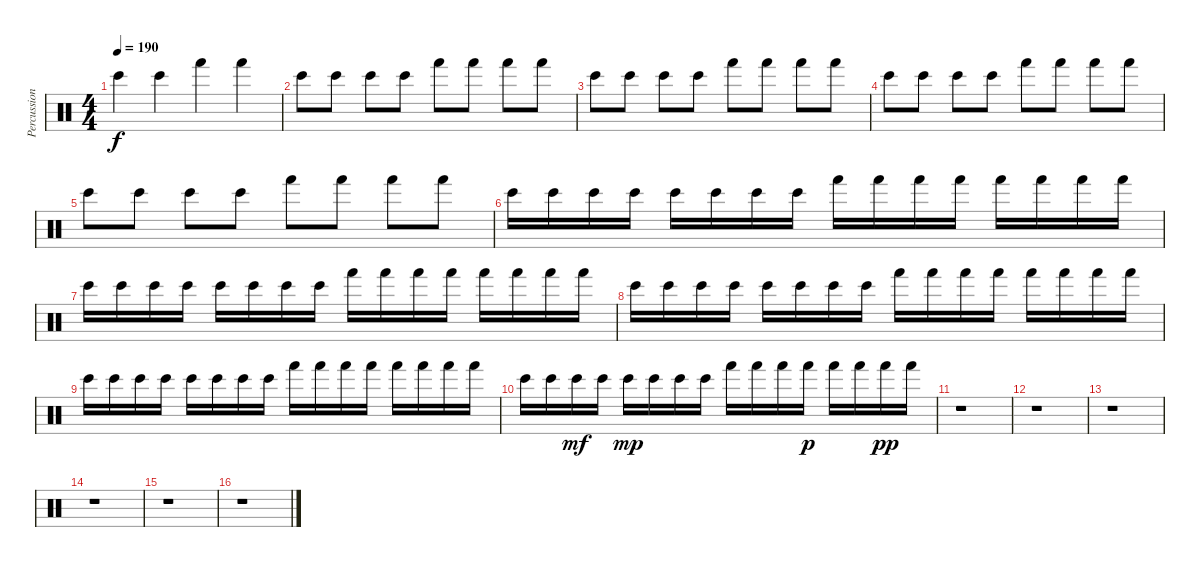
\track ("Percussion" "Percussion") {instrument percussion}
\staff {score}
\articulation defaults
\ts (4 4)
\tempo 190
\clef neutral
\ks c "Bongo High (hit)".4{dy f} "Bongo High (hit)".4 "Hand (hit)".4 "Hand (hit)".4
|
"Bongo High (hit)".8 "Bongo High (hit)".8 "Bongo High (hit)".8 "Bongo High (hit)".8 "Hand (hit)".8 "Hand (hit)".8 "Hand (hit)".8 "Hand (hit)".8 |
"Bongo High (hit)".8 "Bongo High (hit)".8 "Bongo High (hit)".8 "Bongo High (hit)".8 "Hand (hit)".8 "Hand (hit)".8 "Hand (hit)".8 "Hand (hit)".8 |
"Bongo High (hit)".8 "Bongo High (hit)".8 "Bongo High (hit)".8 "Bongo High (hit)".8 "Hand (hit)".8 "Hand (hit)".8 "Hand (hit)".8 "Hand (hit)".8 |
"Bongo High (hit)".8 "Bongo High (hit)".8 "Bongo High (hit)".8 "Bongo High (hit)".8 "Hand (hit)".8 "Hand (hit)".8 "Hand (hit)".8 "Hand (hit)".8 |
"Bongo High (hit)".16 "Bongo High (hit)".16 "Bongo High (hit)".16 "Bongo High (hit)".16 "Bongo High (hit)".16 "Bongo High (hit)".16 "Bongo High (hit)".16 "Bongo High (hit)".16 "Hand (hit)".16 "Hand (hit)".16 "Hand (hit)".16 "Hand (hit)".16 "Hand (hit)".16 "Hand (hit)".16 "Hand (hit)".16 "Hand (hit)".16 |
"Bongo High (hit)".16 "Bongo High (hit)".16 "Bongo High (hit)".16 "Bongo High (hit)".16 "Bongo High (hit)".16 "Bongo High (hit)".16 "Bongo High (hit)".16 "Bongo High (hit)".16 "Hand (hit)".16 "Hand (hit)".16 "Hand (hit)".16 "Hand (hit)".16 "Hand (hit)".16 "Hand (hit)".16 "Hand (hit)".16 "Hand (hit)".16 |
"Bongo High (hit)".16 "Bongo High (hit)".16 "Bongo High (hit)".16 "Bongo High (hit)".16 "Bongo High (hit)".16 "Bongo High (hit)".16 "Bongo High (hit)".16 "Bongo High (hit)".16 "Hand (hit)".16 "Hand (hit)".16 "Hand (hit)".16 "Hand (hit)".16 "Hand (hit)".16 "Hand (hit)".16 "Hand (hit)".16 "Hand (hit)".16 |
"Bongo High (hit)".16 "Bongo High (hit)".16 "Bongo High (hit)".16 "Bongo High (hit)".16 "Bongo High (hit)".16 "Bongo High (hit)".16 "Bongo High (hit)".16 "Bongo High (hit)".16 "Hand (hit)".16 "Hand (hit)".16 "Hand (hit)".16 "Hand (hit)".16 "Hand (hit)".16 "Hand (hit)".16 "Hand (hit)".16 "Hand (hit)".16 |
"Bongo High (hit)".16 "Bongo High (hit)".16 "Bongo High (hit)".16{dy mf} "Bongo High (hit)".16 "Bongo High (hit)".16{dy mp} "Bongo High (hit)".16 "Bongo High (hit)".16 "Bongo High (hit)".16 "Hand (hit)".16 "Hand (hit)".16 "Hand (hit)".16 "Hand (hit)".16{dy p} "Hand (hit)".16 "Hand (hit)".16 "Hand (hit)".16{dy pp} "Hand (hit)".16 |
r.1 |
r.1 |
r.1 |
r.1 |
r.1 |
r.1
